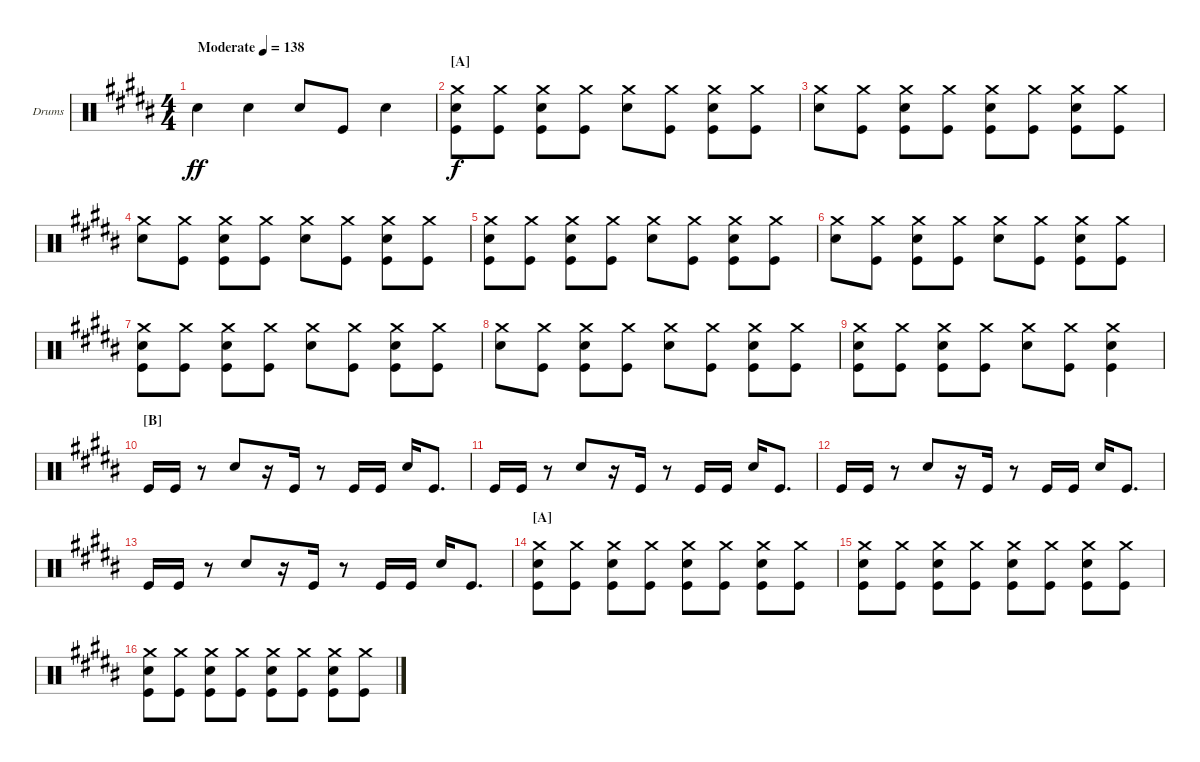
\bracketExtendMode groupsimilarinstruments
\firstSystemTrackNameOrientation horizontal
\otherSystemsTrackNameOrientation horizontal
\track ("Fabrizio Moretti" "Drums") {instrument percussion}
\staff {score}
\articulation defaults
\ts (4 4)
\ac
\tempo (138 "Moderate")
\clef neutral
\ks b "Snare (hit) 2".4{dy ff} "Snare (hit) 2".4 "Snare (hit) 2".8 "Kick (hit)".8 "Snare (hit) 2".4
|
\section ("A" "")
("Snare (hit) 2" "Kick (hit)" "Crash medium (hit)").8{dy f} ("Kick (hit)" "Crash medium (hit)").8 ("Snare (hit) 2" "Kick (hit)" "Crash medium (hit)").8 ("Kick (hit)" "Crash medium (hit)").8 ("Snare (hit) 2" "Crash medium (hit)").8 ("Kick (hit)" "Crash medium (hit)").8 ("Snare (hit) 2" "Kick (hit)" "Crash medium (hit)").8 ("Kick (hit)" "Crash medium (hit)").8 |
("Snare (hit) 2" "Crash medium (hit)").8 ("Kick (hit)" "Crash medium (hit)").8 ("Snare (hit) 2" "Kick (hit)" "Crash medium (hit)").8 ("Kick (hit)" "Crash medium (hit)").8 ("Snare (hit) 2" "Kick (hit)" "Crash medium (hit)").8 ("Kick (hit)" "Crash medium (hit)").8 ("Snare (hit) 2" "Kick (hit)" "Crash medium (hit)").8 ("Kick (hit)" "Crash medium (hit)").8 |
("Snare (hit) 2" "Crash medium (hit)").8 ("Kick (hit)" "Crash medium (hit)").8 ("Snare (hit) 2" "Kick (hit)" "Crash medium (hit)").8 ("Kick (hit)" "Crash medium (hit)").8 ("Snare (hit) 2" "Crash medium (hit)").8 ("Kick (hit)" "Crash medium (hit)").8 ("Snare (hit) 2" "Kick (hit)" "Crash medium (hit)").8 ("Kick (hit)" "Crash medium (hit)").8 |
("Snare (hit) 2" "Kick (hit)" "Crash medium (hit)").8 ("Kick (hit)" "Crash medium (hit)").8 ("Snare (hit) 2" "Kick (hit)" "Crash medium (hit)").8 ("Kick (hit)" "Crash medium (hit)").8 ("Snare (hit) 2" "Crash medium (hit)").8 ("Kick (hit)" "Crash medium (hit)").8 ("Snare (hit) 2" "Kick (hit)" "Crash medium (hit)").8 ("Kick (hit)" "Crash medium (hit)").8 |
("Snare (hit) 2" "Crash medium (hit)").8 ("Kick (hit)" "Crash medium (hit)").8 ("Snare (hit) 2" "Kick (hit)" "Crash medium (hit)").8 ("Kick (hit)" "Crash medium (hit)").8 ("Snare (hit) 2" "Crash medium (hit)").8 ("Kick (hit)" "Crash medium (hit)").8 ("Snare (hit) 2" "Kick (hit)" "Crash medium (hit)").8 ("Kick (hit)" "Crash medium (hit)").8 |
("Snare (hit) 2" "Kick (hit)" "Crash medium (hit)").8 ("Kick (hit)" "Crash medium (hit)").8 ("Snare (hit) 2" "Kick (hit)" "Crash medium (hit)").8 ("Kick (hit)" "Crash medium (hit)").8 ("Snare (hit) 2" "Crash medium (hit)").8 ("Kick (hit)" "Crash medium (hit)").8 ("Snare (hit) 2" "Kick (hit)" "Crash medium (hit)").8 ("Kick (hit)" "Crash medium (hit)").8 |
("Snare (hit) 2" "Crash medium (hit)").8 ("Kick (hit)" "Crash medium (hit)").8 ("Snare (hit) 2" "Kick (hit)" "Crash medium (hit)").8 ("Kick (hit)" "Crash medium (hit)").8 ("Snare (hit) 2" "Crash medium (hit)").8 ("Kick (hit)" "Crash medium (hit)").8 ("Snare (hit) 2" "Kick (hit)" "Crash medium (hit)").8 ("Kick (hit)" "Crash medium (hit)").8 |
("Snare (hit) 2" "Kick (hit)" "Crash medium (hit)").8 ("Kick (hit)" "Crash medium (hit)").8 ("Snare (hit) 2" "Kick (hit)" "Crash medium (hit)").8 ("Kick (hit)" "Crash medium (hit)").8 ("Snare (hit) 2" "Crash medium (hit)").8 ("Kick (hit)" "Crash medium (hit)").8 ("Snare (hit) 2" "Kick (hit)" "Crash medium (hit)").4 |
\section ("B" "")
"Kick (hit)".16 "Kick (hit)".16 r.8 "Snare (hit) 2".8 r.16 "Kick (hit)".16 r.8 "Kick (hit)".16 "Kick (hit)".16 "Snare (hit) 2".16 "Kick (hit)".8{d} |
"Kick (hit)".16 "Kick (hit)".16 r.8 "Snare (hit) 2".8 r.16 "Kick (hit)".16 r.8 "Kick (hit)".16 "Kick (hit)".16 "Snare (hit) 2".16 "Kick (hit)".8{d} |
"Kick (hit)".16 "Kick (hit)".16 r.8 "Snare (hit) 2".8 r.16 "Kick (hit)".16 r.8 "Kick (hit)".16 "Kick (hit)".16 "Snare (hit) 2".16 "Kick (hit)".8{d} |
"Kick (hit)".16 "Kick (hit)".16 r.8 "Snare (hit) 2".8 r.16 "Kick (hit)".16 r.8 "Kick (hit)".16 "Kick (hit)".16 "Snare (hit) 2".16 "Kick (hit)".8{d} |
\section ("A" "")
("Snare (hit) 2" "Kick (hit)" "Crash medium (hit)").8 ("Kick (hit)" "Crash medium (hit)").8 ("Snare (hit) 2" "Kick (hit)" "Crash medium (hit)").8 ("Kick (hit)" "Crash medium (hit)").8 ("Snare (hit) 2" "Kick (hit)" "Crash medium (hit)").8 ("Kick (hit)" "Crash medium (hit)").8 ("Snare (hit) 2" "Kick (hit)" "Crash medium (hit)").8 ("Kick (hit)" "Crash medium (hit)").8 |
("Snare (hit) 2" "Kick (hit)" "Crash medium (hit)").8 ("Kick (hit)" "Crash medium (hit)").8 ("Snare (hit) 2" "Kick (hit)" "Crash medium (hit)").8 ("Kick (hit)" "Crash medium (hit)").8 ("Snare (hit) 2" "Kick (hit)" "Crash medium (hit)").8 ("Kick (hit)" "Crash medium (hit)").8 ("Snare (hit) 2" "Kick (hit)" "Crash medium (hit)").8 ("Kick (hit)" "Crash medium (hit)").8 |
("Snare (hit) 2" "Kick (hit)" "Crash medium (hit)").8 ("Kick (hit)" "Crash medium (hit)").8 ("Snare (hit) 2" "Kick (hit)" "Crash medium (hit)").8 ("Kick (hit)" "Crash medium (hit)").8 ("Snare (hit) 2" "Kick (hit)" "Crash medium (hit)").8 ("Kick (hit)" "Crash medium (hit)").8 ("Snare (hit) 2" "Kick (hit)" "Crash medium (hit)").8 ("Kick (hit)" "Crash medium (hit)").8
